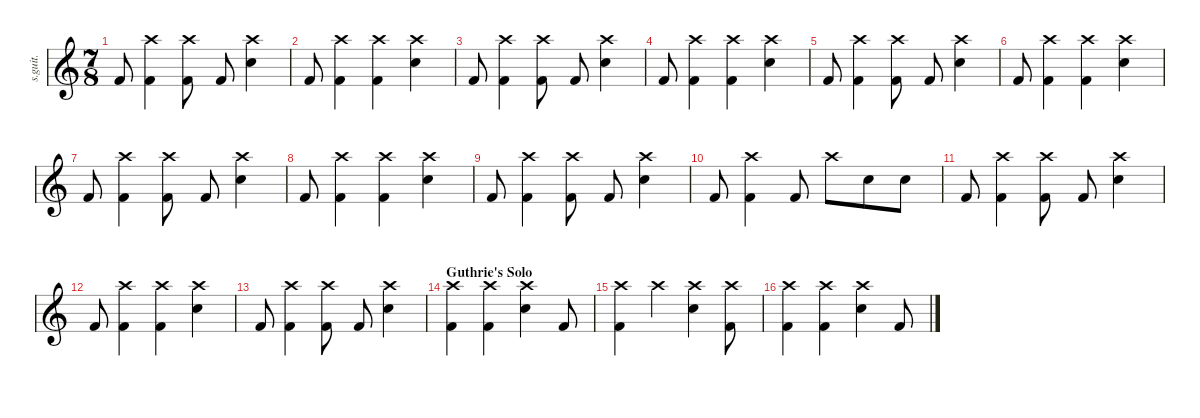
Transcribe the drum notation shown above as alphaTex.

\defaultSystemsLayout 4
\hideDynamics
\bracketExtendMode nobrackets
\track ("" "s.guit.") {instrument percussion}
\staff {score}
\articulation defaults
\ts (7 8)
\tempo (212 hide)
\clef g2
\ks c "Kick (hit) 2".8{lyrics (0 "") lyrics (1 "") lyrics (2 "") lyrics (3 "") lyrics (4 "") dy f}
("Kick (hit) 2" "Crash high (hit)").4{lyrics (0 "") lyrics (1 "") lyrics (2 "") lyrics (3 "") lyrics (4 "")} ("Kick (hit) 2" "Crash high (hit)").8{lyrics (0 "") lyrics (1 "") lyrics (2 "") lyrics (3 "") lyrics (4 "")} "Kick (hit) 2".8{lyrics (0 "") lyrics (1 "") lyrics (2 "") lyrics (3 "") lyrics (4 "")} ("Snare (hit) 2" "Crash high (hit)").4{lyrics (0 "") lyrics (1 "") lyrics (2 "") lyrics (3 "") lyrics (4 "")} |
"Kick (hit) 2".8{lyrics (0 "") lyrics (1 "") lyrics (2 "") lyrics (3 "") lyrics (4 "")} ("Kick (hit) 2" "Crash high (hit)").4{lyrics (0 "") lyrics (1 "") lyrics (2 "") lyrics (3 "") lyrics (4 "")} ("Kick (hit) 2" "Crash high (hit)").4{lyrics (0 "") lyrics (1 "") lyrics (2 "") lyrics (3 "") lyrics (4 "")} ("Snare (hit) 2" "Crash high (hit)").4{lyrics (0 "") lyrics (1 "") lyrics (2 "") lyrics (3 "") lyrics (4 "")} |
"Kick (hit) 2".8{lyrics (0 "") lyrics (1 "") lyrics (2 "") lyrics (3 "") lyrics (4 "")} ("Kick (hit) 2" "Crash high (hit)").4{lyrics (0 "") lyrics (1 "") lyrics (2 "") lyrics (3 "") lyrics (4 "")} ("Kick (hit) 2" "Crash high (hit)").8{lyrics (0 "") lyrics (1 "") lyrics (2 "") lyrics (3 "") lyrics (4 "")} "Kick (hit) 2".8{lyrics (0 "") lyrics (1 "") lyrics (2 "") lyrics (3 "") lyrics (4 "")} ("Snare (hit) 2" "Crash high (hit)").4{lyrics (0 "") lyrics (1 "") lyrics (2 "") lyrics (3 "") lyrics (4 "")} |
"Kick (hit) 2".8{lyrics (0 "") lyrics (1 "") lyrics (2 "") lyrics (3 "") lyrics (4 "")} ("Kick (hit) 2" "Crash high (hit)").4{lyrics (0 "") lyrics (1 "") lyrics (2 "") lyrics (3 "") lyrics (4 "")} ("Kick (hit) 2" "Crash high (hit)").4{lyrics (0 "") lyrics (1 "") lyrics (2 "") lyrics (3 "") lyrics (4 "")} ("Snare (hit) 2" "Crash high (hit)").4{lyrics (0 "") lyrics (1 "") lyrics (2 "") lyrics (3 "") lyrics (4 "")} |
"Kick (hit) 2".8{lyrics (0 "") lyrics (1 "") lyrics (2 "") lyrics (3 "") lyrics (4 "")} ("Kick (hit) 2" "Crash high (hit)").4{lyrics (0 "") lyrics (1 "") lyrics (2 "") lyrics (3 "") lyrics (4 "")} ("Kick (hit) 2" "Crash high (hit)").8{lyrics (0 "") lyrics (1 "") lyrics (2 "") lyrics (3 "") lyrics (4 "")} "Kick (hit) 2".8{lyrics (0 "") lyrics (1 "") lyrics (2 "") lyrics (3 "") lyrics (4 "")} ("Snare (hit) 2" "Crash high (hit)").4{lyrics (0 "") lyrics (1 "") lyrics (2 "") lyrics (3 "") lyrics (4 "")} |
"Kick (hit) 2".8{lyrics (0 "") lyrics (1 "") lyrics (2 "") lyrics (3 "") lyrics (4 "")} ("Kick (hit) 2" "Crash high (hit)").4{lyrics (0 "") lyrics (1 "") lyrics (2 "") lyrics (3 "") lyrics (4 "")} ("Kick (hit) 2" "Crash high (hit)").4{lyrics (0 "") lyrics (1 "") lyrics (2 "") lyrics (3 "") lyrics (4 "")} ("Snare (hit) 2" "Crash high (hit)").4{lyrics (0 "") lyrics (1 "") lyrics (2 "") lyrics (3 "") lyrics (4 "")} |
"Kick (hit) 2".8{lyrics (0 "") lyrics (1 "") lyrics (2 "") lyrics (3 "") lyrics (4 "")} ("Kick (hit) 2" "Crash high (hit)").4{lyrics (0 "") lyrics (1 "") lyrics (2 "") lyrics (3 "") lyrics (4 "")} ("Kick (hit) 2" "Crash high (hit)").8{lyrics (0 "") lyrics (1 "") lyrics (2 "") lyrics (3 "") lyrics (4 "")} "Kick (hit) 2".8{lyrics (0 "") lyrics (1 "") lyrics (2 "") lyrics (3 "") lyrics (4 "")} ("Snare (hit) 2" "Crash high (hit)").4{lyrics (0 "") lyrics (1 "") lyrics (2 "") lyrics (3 "") lyrics (4 "")} |
"Kick (hit) 2".8{lyrics (0 "") lyrics (1 "") lyrics (2 "") lyrics (3 "") lyrics (4 "")} ("Kick (hit) 2" "Crash high (hit)").4{lyrics (0 "") lyrics (1 "") lyrics (2 "") lyrics (3 "") lyrics (4 "")} ("Kick (hit) 2" "Crash high (hit)").4{lyrics (0 "") lyrics (1 "") lyrics (2 "") lyrics (3 "") lyrics (4 "")} ("Snare (hit) 2" "Crash high (hit)").4{lyrics (0 "") lyrics (1 "") lyrics (2 "") lyrics (3 "") lyrics (4 "")} |
"Kick (hit) 2".8{lyrics (0 "") lyrics (1 "") lyrics (2 "") lyrics (3 "") lyrics (4 "")} ("Kick (hit) 2" "Crash high (hit)").4{lyrics (0 "") lyrics (1 "") lyrics (2 "") lyrics (3 "") lyrics (4 "")} ("Kick (hit) 2" "Crash high (hit)").8{lyrics (0 "") lyrics (1 "") lyrics (2 "") lyrics (3 "") lyrics (4 "")} "Kick (hit) 2".8{lyrics (0 "") lyrics (1 "") lyrics (2 "") lyrics (3 "") lyrics (4 "")} ("Snare (hit) 2" "Crash high (hit)").4{lyrics (0 "") lyrics (1 "") lyrics (2 "") lyrics (3 "") lyrics (4 "")} |
"Kick (hit) 2".8{lyrics (0 "") lyrics (1 "") lyrics (2 "") lyrics (3 "") lyrics (4 "")} ("Kick (hit) 2" "Crash high (hit)").4{lyrics (0 "") lyrics (1 "") lyrics (2 "") lyrics (3 "") lyrics (4 "")} "Kick (hit) 2".8{lyrics (0 "") lyrics (1 "") lyrics (2 "") lyrics (3 "") lyrics (4 "")} "Crash high (hit)".8{lyrics (0 "") lyrics (1 "") lyrics (2 "") lyrics (3 "") lyrics (4 "")} "Snare (hit) 2".8{lyrics (0 "") lyrics (1 "") lyrics (2 "") lyrics (3 "") lyrics (4 "")} "Snare (hit) 2".8{lyrics (0 "") lyrics (1 "") lyrics (2 "") lyrics (3 "") lyrics (4 "")} |
"Kick (hit) 2".8{lyrics (0 "") lyrics (1 "") lyrics (2 "") lyrics (3 "") lyrics (4 "")} ("Kick (hit) 2" "Crash high (hit)").4{lyrics (0 "") lyrics (1 "") lyrics (2 "") lyrics (3 "") lyrics (4 "")} ("Kick (hit) 2" "Crash high (hit)").8{lyrics (0 "") lyrics (1 "") lyrics (2 "") lyrics (3 "") lyrics (4 "")} "Kick (hit) 2".8{lyrics (0 "") lyrics (1 "") lyrics (2 "") lyrics (3 "") lyrics (4 "")} ("Snare (hit) 2" "Crash high (hit)").4{lyrics (0 "") lyrics (1 "") lyrics (2 "") lyrics (3 "") lyrics (4 "")} |
"Kick (hit) 2".8{lyrics (0 "") lyrics (1 "") lyrics (2 "") lyrics (3 "") lyrics (4 "")} ("Kick (hit) 2" "Crash high (hit)").4{lyrics (0 "") lyrics (1 "") lyrics (2 "") lyrics (3 "") lyrics (4 "")} ("Kick (hit) 2" "Crash high (hit)").4{lyrics (0 "") lyrics (1 "") lyrics (2 "") lyrics (3 "") lyrics (4 "")} ("Snare (hit) 2" "Crash high (hit)").4{lyrics (0 "") lyrics (1 "") lyrics (2 "") lyrics (3 "") lyrics (4 "")} |
"Kick (hit) 2".8{lyrics (0 "") lyrics (1 "") lyrics (2 "") lyrics (3 "") lyrics (4 "")} ("Kick (hit) 2" "Crash high (hit)").4{lyrics (0 "") lyrics (1 "") lyrics (2 "") lyrics (3 "") lyrics (4 "")} ("Kick (hit) 2" "Crash high (hit)").8{lyrics (0 "") lyrics (1 "") lyrics (2 "") lyrics (3 "") lyrics (4 "")} "Kick (hit) 2".8{lyrics (0 "") lyrics (1 "") lyrics (2 "") lyrics (3 "") lyrics (4 "")} ("Snare (hit) 2" "Crash high (hit)").4{lyrics (0 "") lyrics (1 "") lyrics (2 "") lyrics (3 "") lyrics (4 "")} |
\section ("" "Guthrie's Solo")
("Kick (hit) 2" "Crash high (hit)").4{lyrics (0 "") lyrics (1 "") lyrics (2 "") lyrics (3 "") lyrics (4 "")} ("Kick (hit) 2" "Crash high (hit)").4{lyrics (0 "") lyrics (1 "") lyrics (2 "") lyrics (3 "") lyrics (4 "")} ("Snare (hit) 2" "Crash high (hit)").4{lyrics (0 "") lyrics (1 "") lyrics (2 "") lyrics (3 "") lyrics (4 "")} "Kick (hit) 2".8{lyrics (0 "") lyrics (1 "") lyrics (2 "") lyrics (3 "") lyrics (4 "")} |
("Kick (hit) 2" "Crash high (hit)").4{lyrics (0 "") lyrics (1 "") lyrics (2 "") lyrics (3 "") lyrics (4 "")} "Crash high (hit)".4{lyrics (0 "") lyrics (1 "") lyrics (2 "") lyrics (3 "") lyrics (4 "")} ("Snare (hit) 2" "Crash high (hit)").4{lyrics (0 "") lyrics (1 "") lyrics (2 "") lyrics (3 "") lyrics (4 "")} ("Kick (hit) 2" "Crash high (hit)").8{lyrics (0 "") lyrics (1 "") lyrics (2 "") lyrics (3 "") lyrics (4 "")} |
("Kick (hit) 2" "Crash high (hit)").4{lyrics (0 "") lyrics (1 "") lyrics (2 "") lyrics (3 "") lyrics (4 "")} ("Kick (hit) 2" "Crash high (hit)").4{lyrics (0 "") lyrics (1 "") lyrics (2 "") lyrics (3 "") lyrics (4 "")} ("Snare (hit) 2" "Crash high (hit)").4{lyrics (0 "") lyrics (1 "") lyrics (2 "") lyrics (3 "") lyrics (4 "")} "Kick (hit) 2".8{lyrics (0 "") lyrics (1 "") lyrics (2 "") lyrics (3 "") lyrics (4 "")}
